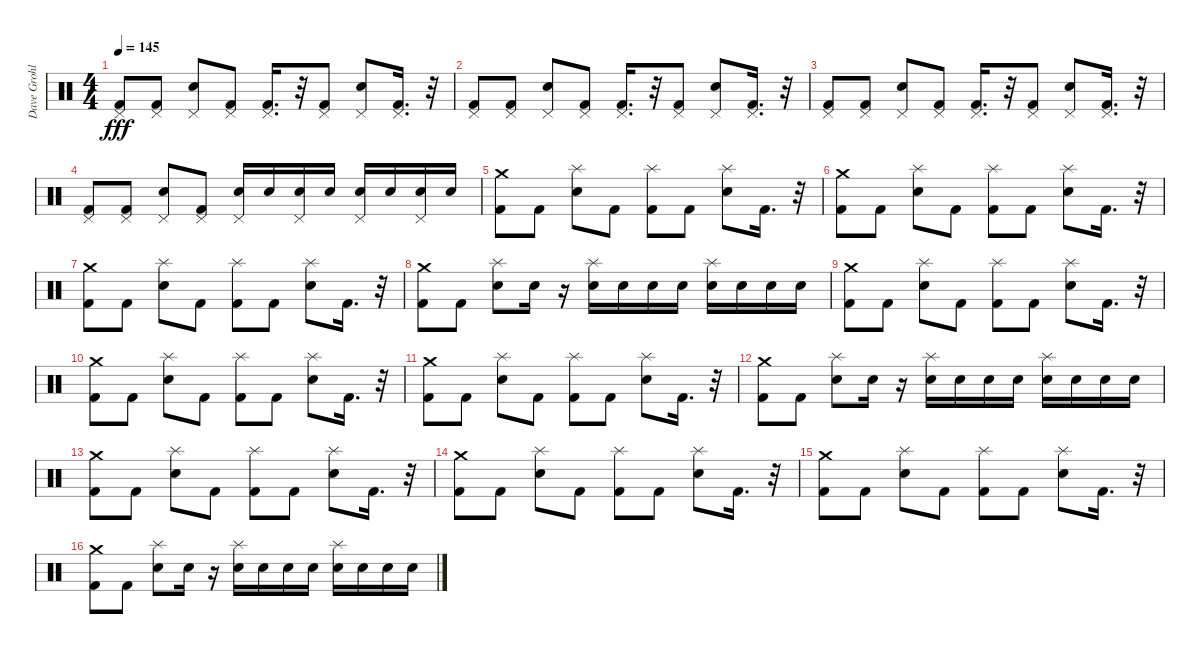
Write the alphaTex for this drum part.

\track ("Dave Grohl - Drums" "Dave Grohl") {instrument percussion}
\staff {score}
\articulation defaults
\ts (4 4)
\tempo 145
\clef neutral
\ks c
("Pedal Hi-Hat (hit)" "Kick (hit) 2").8{dy fff} ("Pedal Hi-Hat (hit)" "Kick (hit) 2").8 ("Pedal Hi-Hat (hit)" "Snare (hit) 2").8 ("Pedal Hi-Hat (hit)" "Kick (hit) 2").8 ("Pedal Hi-Hat (hit)" "Kick (hit) 2").16{d} r.32 ("Pedal Hi-Hat (hit)" "Kick (hit) 2").8 ("Pedal Hi-Hat (hit)" "Snare (hit) 2").8 ("Pedal Hi-Hat (hit)" "Kick (hit) 2").16{d} r.32 |
("Pedal Hi-Hat (hit)" "Kick (hit) 2").8 ("Pedal Hi-Hat (hit)" "Kick (hit) 2").8 ("Pedal Hi-Hat (hit)" "Snare (hit) 2").8 ("Pedal Hi-Hat (hit)" "Kick (hit) 2").8 ("Pedal Hi-Hat (hit)" "Kick (hit) 2").16{d} r.32 ("Pedal Hi-Hat (hit)" "Kick (hit) 2").8 ("Pedal Hi-Hat (hit)" "Snare (hit) 2").8 ("Pedal Hi-Hat (hit)" "Kick (hit) 2").16{d} r.32 |
("Pedal Hi-Hat (hit)" "Kick (hit) 2").8 ("Pedal Hi-Hat (hit)" "Kick (hit) 2").8 ("Pedal Hi-Hat (hit)" "Snare (hit) 2").8 ("Pedal Hi-Hat (hit)" "Kick (hit) 2").8 ("Pedal Hi-Hat (hit)" "Kick (hit) 2").16{d} r.32 ("Pedal Hi-Hat (hit)" "Kick (hit) 2").8 ("Pedal Hi-Hat (hit)" "Snare (hit) 2").8 ("Pedal Hi-Hat (hit)" "Kick (hit) 2").16{d} r.32 |
("Pedal Hi-Hat (hit)" "Kick (hit) 2").8 ("Pedal Hi-Hat (hit)" "Kick (hit) 2").8 ("Pedal Hi-Hat (hit)" "Snare (hit) 2").8 ("Pedal Hi-Hat (hit)" "Kick (hit) 2").8 ("Pedal Hi-Hat (hit)" "Snare (hit) 2").16 "Snare (hit) 2".16 ("Pedal Hi-Hat (hit)" "Snare (hit) 2").16 "Snare (hit) 2".16 ("Pedal Hi-Hat (hit)" "Snare (hit) 2").16 "Snare (hit) 2".16 ("Pedal Hi-Hat (hit)" "Snare (hit) 2").16 "Snare (hit) 2".16 |
("Kick (hit) 2" "Crash medium (hit)").8 "Kick (hit) 2".8 ("Splash (hit)" "Snare (hit) 2").8 "Kick (hit) 2".8 ("Splash (hit)" "Kick (hit) 2").8 "Kick (hit) 2".8 ("Splash (hit)" "Snare (hit) 2").8 "Kick (hit) 2".16{d} r.32 |
("Kick (hit) 2" "Crash medium (hit)").8 "Kick (hit) 2".8 ("Splash (hit)" "Snare (hit) 2").8 "Kick (hit) 2".8 ("Splash (hit)" "Kick (hit) 2").8 "Kick (hit) 2".8 ("Splash (hit)" "Snare (hit) 2").8 "Kick (hit) 2".16{d} r.32 |
("Kick (hit) 2" "Crash medium (hit)").8 "Kick (hit) 2".8 ("Splash (hit)" "Snare (hit) 2").8 "Kick (hit) 2".8 ("Splash (hit)" "Kick (hit) 2").8 "Kick (hit) 2".8 ("Splash (hit)" "Snare (hit) 2").8 "Kick (hit) 2".16{d} r.32 |
("Kick (hit) 2" "Crash medium (hit)").8 "Kick (hit) 2".8 ("Splash (hit)" "Snare (hit) 2").8 "Snare (hit) 2".16 r.16 ("Splash (hit)" "Snare (hit) 2").16 "Snare (hit) 2".16 "Snare (hit) 2".16 "Snare (hit) 2".16 ("Splash (hit)" "Snare (hit) 2").16 "Snare (hit) 2".16 "Snare (hit) 2".16 "Snare (hit) 2".16 |
("Kick (hit) 2" "Crash medium (hit)").8 "Kick (hit) 2".8 ("Splash (hit)" "Snare (hit) 2").8 "Kick (hit) 2".8 ("Splash (hit)" "Kick (hit) 2").8 "Kick (hit) 2".8 ("Splash (hit)" "Snare (hit) 2").8 "Kick (hit) 2".16{d} r.32 |
("Kick (hit) 2" "Crash medium (hit)").8 "Kick (hit) 2".8 ("Splash (hit)" "Snare (hit) 2").8 "Kick (hit) 2".8 ("Splash (hit)" "Kick (hit) 2").8 "Kick (hit) 2".8 ("Splash (hit)" "Snare (hit) 2").8 "Kick (hit) 2".16{d} r.32 |
("Kick (hit) 2" "Crash medium (hit)").8 "Kick (hit) 2".8 ("Splash (hit)" "Snare (hit) 2").8 "Kick (hit) 2".8 ("Splash (hit)" "Kick (hit) 2").8 "Kick (hit) 2".8 ("Splash (hit)" "Snare (hit) 2").8 "Kick (hit) 2".16{d} r.32 |
("Kick (hit) 2" "Crash medium (hit)").8 "Kick (hit) 2".8 ("Splash (hit)" "Snare (hit) 2").8 "Snare (hit) 2".16 r.16 ("Splash (hit)" "Snare (hit) 2").16 "Snare (hit) 2".16 "Snare (hit) 2".16 "Snare (hit) 2".16 ("Splash (hit)" "Snare (hit) 2").16 "Snare (hit) 2".16 "Snare (hit) 2".16 "Snare (hit) 2".16 |
("Kick (hit) 2" "Crash medium (hit)").8 "Kick (hit) 2".8 ("Splash (hit)" "Snare (hit) 2").8 "Kick (hit) 2".8 ("Splash (hit)" "Kick (hit) 2").8 "Kick (hit) 2".8 ("Splash (hit)" "Snare (hit) 2").8 "Kick (hit) 2".16{d} r.32 |
("Kick (hit) 2" "Crash medium (hit)").8 "Kick (hit) 2".8 ("Splash (hit)" "Snare (hit) 2").8 "Kick (hit) 2".8 ("Splash (hit)" "Kick (hit) 2").8 "Kick (hit) 2".8 ("Splash (hit)" "Snare (hit) 2").8 "Kick (hit) 2".16{d} r.32 |
("Kick (hit) 2" "Crash medium (hit)").8 "Kick (hit) 2".8 ("Splash (hit)" "Snare (hit) 2").8 "Kick (hit) 2".8 ("Splash (hit)" "Kick (hit) 2").8 "Kick (hit) 2".8 ("Splash (hit)" "Snare (hit) 2").8 "Kick (hit) 2".16{d} r.32 |
("Kick (hit) 2" "Crash medium (hit)").8 "Kick (hit) 2".8 ("Splash (hit)" "Snare (hit) 2").8 "Snare (hit) 2".16 r.16 ("Splash (hit)" "Snare (hit) 2").16 "Snare (hit) 2".16 "Snare (hit) 2".16 "Snare (hit) 2".16 ("Splash (hit)" "Snare (hit) 2").16 "Snare (hit) 2".16 "Snare (hit) 2".16 "Snare (hit) 2".16
